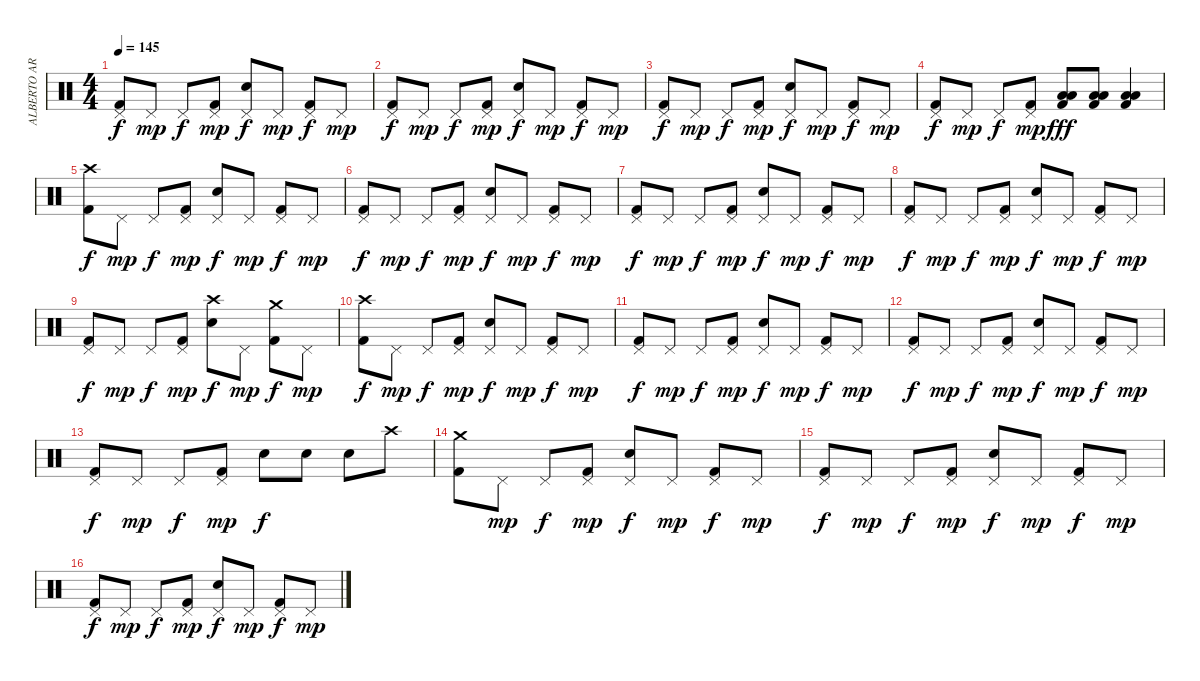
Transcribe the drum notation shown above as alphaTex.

\track ("ALBERTO ARDINES" "ALBERTO AR") {instrument percussion}
\staff {score}
\articulation defaults
\ts (4 4)
\tempo 145
\clef neutral
\ks c
("Pedal Hi-Hat (hit)" "Kick (hit) 2").8{dy f} "Pedal Hi-Hat (hit)".8{dy mp} "Pedal Hi-Hat (hit)".8{dy f} ("Pedal Hi-Hat (hit)" "Kick (hit) 2").8{dy mp} ("Pedal Hi-Hat (hit)" "Electric Snare (hit)").8{dy f} "Pedal Hi-Hat (hit)".8{dy mp} ("Pedal Hi-Hat (hit)" "Kick (hit) 2").8{dy f} "Pedal Hi-Hat (hit)".8{dy mp} |
("Pedal Hi-Hat (hit)" "Kick (hit) 2").8{dy f} "Pedal Hi-Hat (hit)".8{dy mp} "Pedal Hi-Hat (hit)".8{dy f} ("Pedal Hi-Hat (hit)" "Kick (hit) 2").8{dy mp} ("Pedal Hi-Hat (hit)" "Electric Snare (hit)").8{dy f} "Pedal Hi-Hat (hit)".8{dy mp} ("Pedal Hi-Hat (hit)" "Kick (hit) 2").8{dy f} "Pedal Hi-Hat (hit)".8{dy mp} |
("Pedal Hi-Hat (hit)" "Kick (hit) 2").8{dy f} "Pedal Hi-Hat (hit)".8{dy mp} "Pedal Hi-Hat (hit)".8{dy f} ("Pedal Hi-Hat (hit)" "Kick (hit) 2").8{dy mp} ("Pedal Hi-Hat (hit)" "Electric Snare (hit)").8{dy f} "Pedal Hi-Hat (hit)".8{dy mp} ("Pedal Hi-Hat (hit)" "Kick (hit) 2").8{dy f} "Pedal Hi-Hat (hit)".8{dy mp} |
("Pedal Hi-Hat (hit)" "Kick (hit) 2").8{dy f} "Pedal Hi-Hat (hit)".8{dy mp} "Pedal Hi-Hat (hit)".8{dy f} ("Pedal Hi-Hat (hit)" "Kick (hit) 2").8{dy mp} ("Low Floor Tom (hit)" "Low Tom (hit)" "Kick (hit) 2").8{dy fff} ("Low Floor Tom (hit)" "Low Tom (hit)" "Kick (hit) 2").8 ("Low Floor Tom (hit)" "Low Tom (hit)" "Kick (hit) 2").4 |
("Crash high (hit)" "Kick (hit) 2").8{dy f} "Pedal Hi-Hat (hit)".8{dy mp} "Pedal Hi-Hat (hit)".8{dy f} ("Pedal Hi-Hat (hit)" "Kick (hit) 2").8{dy mp} ("Pedal Hi-Hat (hit)" "Electric Snare (hit)").8{dy f} "Pedal Hi-Hat (hit)".8{dy mp} ("Pedal Hi-Hat (hit)" "Kick (hit) 2").8{dy f} "Pedal Hi-Hat (hit)".8{dy mp} |
("Pedal Hi-Hat (hit)" "Kick (hit) 2").8{dy f} "Pedal Hi-Hat (hit)".8{dy mp} "Pedal Hi-Hat (hit)".8{dy f} ("Pedal Hi-Hat (hit)" "Kick (hit) 2").8{dy mp} ("Pedal Hi-Hat (hit)" "Electric Snare (hit)").8{dy f} "Pedal Hi-Hat (hit)".8{dy mp} ("Pedal Hi-Hat (hit)" "Kick (hit) 2").8{dy f} "Pedal Hi-Hat (hit)".8{dy mp} |
("Pedal Hi-Hat (hit)" "Kick (hit) 2").8{dy f} "Pedal Hi-Hat (hit)".8{dy mp} "Pedal Hi-Hat (hit)".8{dy f} ("Pedal Hi-Hat (hit)" "Kick (hit) 2").8{dy mp} ("Pedal Hi-Hat (hit)" "Electric Snare (hit)").8{dy f} "Pedal Hi-Hat (hit)".8{dy mp} ("Pedal Hi-Hat (hit)" "Kick (hit) 2").8{dy f} "Pedal Hi-Hat (hit)".8{dy mp} |
("Pedal Hi-Hat (hit)" "Kick (hit) 2").8{dy f} "Pedal Hi-Hat (hit)".8{dy mp} "Pedal Hi-Hat (hit)".8{dy f} ("Pedal Hi-Hat (hit)" "Kick (hit) 2").8{dy mp} ("Pedal Hi-Hat (hit)" "Electric Snare (hit)").8{dy f} "Pedal Hi-Hat (hit)".8{dy mp} ("Pedal Hi-Hat (hit)" "Kick (hit) 2").8{dy f} "Pedal Hi-Hat (hit)".8{dy mp} |
("Pedal Hi-Hat (hit)" "Kick (hit) 2").8{dy f} "Pedal Hi-Hat (hit)".8{dy mp} "Pedal Hi-Hat (hit)".8{dy f} ("Pedal Hi-Hat (hit)" "Kick (hit) 2").8{dy mp} ("Crash high (hit)" "Electric Snare (hit)").8{dy f} "Pedal Hi-Hat (hit)".8{dy mp} ("Crash medium (hit)" "Kick (hit) 2").8{dy f} "Pedal Hi-Hat (hit)".8{dy mp} |
("Crash high (hit)" "Kick (hit) 2").8{dy f} "Pedal Hi-Hat (hit)".8{dy mp} "Pedal Hi-Hat (hit)".8{dy f} ("Pedal Hi-Hat (hit)" "Kick (hit) 2").8{dy mp} ("Pedal Hi-Hat (hit)" "Electric Snare (hit)").8{dy f} "Pedal Hi-Hat (hit)".8{dy mp} ("Pedal Hi-Hat (hit)" "Kick (hit) 2").8{dy f} "Pedal Hi-Hat (hit)".8{dy mp} |
("Pedal Hi-Hat (hit)" "Kick (hit) 2").8{dy f} "Pedal Hi-Hat (hit)".8{dy mp} "Pedal Hi-Hat (hit)".8{dy f} ("Pedal Hi-Hat (hit)" "Kick (hit) 2").8{dy mp} ("Pedal Hi-Hat (hit)" "Electric Snare (hit)").8{dy f} "Pedal Hi-Hat (hit)".8{dy mp} ("Pedal Hi-Hat (hit)" "Kick (hit) 2").8{dy f} "Pedal Hi-Hat (hit)".8{dy mp} |
("Pedal Hi-Hat (hit)" "Kick (hit) 2").8{dy f} "Pedal Hi-Hat (hit)".8{dy mp} "Pedal Hi-Hat (hit)".8{dy f} ("Pedal Hi-Hat (hit)" "Kick (hit) 2").8{dy mp} ("Pedal Hi-Hat (hit)" "Electric Snare (hit)").8{dy f} "Pedal Hi-Hat (hit)".8{dy mp} ("Pedal Hi-Hat (hit)" "Kick (hit) 2").8{dy f} "Pedal Hi-Hat (hit)".8{dy mp} |
("Pedal Hi-Hat (hit)" "Kick (hit) 2").8{dy f} "Pedal Hi-Hat (hit)".8{dy mp} "Pedal Hi-Hat (hit)".8{dy f} ("Pedal Hi-Hat (hit)" "Kick (hit) 2").8{dy mp} "Electric Snare (hit)".8{dy f} "Electric Snare (hit)".8 "Electric Snare (hit)".8 "Crash high (hit)".8 |
("Crash medium (hit)" "Kick (hit) 2").8 "Pedal Hi-Hat (hit)".8{dy mp} "Pedal Hi-Hat (hit)".8{dy f} ("Pedal Hi-Hat (hit)" "Kick (hit) 2").8{dy mp} ("Pedal Hi-Hat (hit)" "Electric Snare (hit)").8{dy f} "Pedal Hi-Hat (hit)".8{dy mp} ("Pedal Hi-Hat (hit)" "Kick (hit) 2").8{dy f} "Pedal Hi-Hat (hit)".8{dy mp} |
("Pedal Hi-Hat (hit)" "Kick (hit) 2").8{dy f} "Pedal Hi-Hat (hit)".8{dy mp} "Pedal Hi-Hat (hit)".8{dy f} ("Pedal Hi-Hat (hit)" "Kick (hit) 2").8{dy mp} ("Pedal Hi-Hat (hit)" "Electric Snare (hit)").8{dy f} "Pedal Hi-Hat (hit)".8{dy mp} ("Pedal Hi-Hat (hit)" "Kick (hit) 2").8{dy f} "Pedal Hi-Hat (hit)".8{dy mp} |
("Pedal Hi-Hat (hit)" "Kick (hit) 2").8{dy f} "Pedal Hi-Hat (hit)".8{dy mp} "Pedal Hi-Hat (hit)".8{dy f} ("Pedal Hi-Hat (hit)" "Kick (hit) 2").8{dy mp} ("Pedal Hi-Hat (hit)" "Electric Snare (hit)").8{dy f} "Pedal Hi-Hat (hit)".8{dy mp} ("Pedal Hi-Hat (hit)" "Kick (hit) 2").8{dy f} "Pedal Hi-Hat (hit)".8{dy mp}
